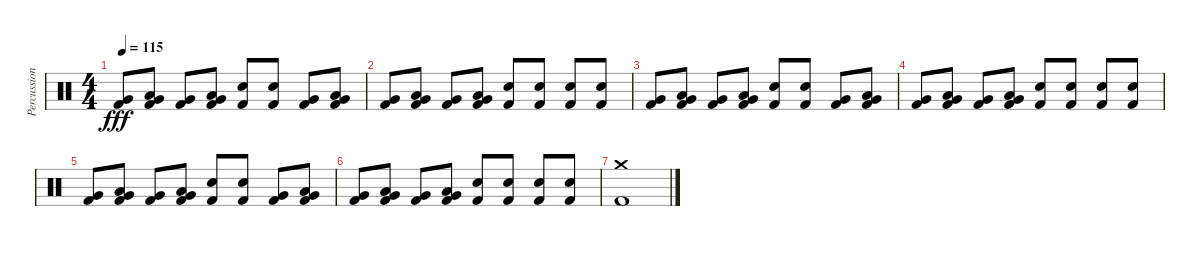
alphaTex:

\track ("Percussion" "Percussion") {instrument percussion}
\staff {score}
\articulation defaults
\ts (4 4)
\tempo 115
\clef neutral
\ks c
("Very Low Tom (hit)" "Kick (hit) 2").8{dy fff} ("Low Tom (hit)" "Very Low Tom (hit)" "Kick (hit) 2").8 ("Very Low Tom (hit)" "Kick (hit) 2").8 ("Low Tom (hit)" "Very Low Tom (hit)" "Kick (hit) 2").8 ("Snare (hit) 2" "Kick (hit) 2").8 ("Snare (hit) 2" "Kick (hit) 2").8 ("Very Low Tom (hit)" "Kick (hit) 2").8 ("Low Tom (hit)" "Very Low Tom (hit)" "Kick (hit) 2").8 |
("Very Low Tom (hit)" "Kick (hit) 2").8 ("Low Tom (hit)" "Very Low Tom (hit)" "Kick (hit) 2").8 ("Very Low Tom (hit)" "Kick (hit) 2").8 ("Low Tom (hit)" "Very Low Tom (hit)" "Kick (hit) 2").8 ("Snare (hit) 2" "Kick (hit) 2").8 ("Snare (hit) 2" "Kick (hit) 2").8 ("Snare (hit) 2" "Kick (hit) 2").8 ("Snare (hit) 2" "Kick (hit) 2").8 |
("Very Low Tom (hit)" "Kick (hit) 2").8 ("Low Tom (hit)" "Very Low Tom (hit)" "Kick (hit) 2").8 ("Very Low Tom (hit)" "Kick (hit) 2").8 ("Low Tom (hit)" "Very Low Tom (hit)" "Kick (hit) 2").8 ("Snare (hit) 2" "Kick (hit) 2").8 ("Snare (hit) 2" "Kick (hit) 2").8 ("Very Low Tom (hit)" "Kick (hit) 2").8 ("Low Tom (hit)" "Very Low Tom (hit)" "Kick (hit) 2").8 |
("Very Low Tom (hit)" "Kick (hit) 2").8 ("Low Tom (hit)" "Very Low Tom (hit)" "Kick (hit) 2").8 ("Very Low Tom (hit)" "Kick (hit) 2").8 ("Low Tom (hit)" "Very Low Tom (hit)" "Kick (hit) 2").8 ("Snare (hit) 2" "Kick (hit) 2").8 ("Snare (hit) 2" "Kick (hit) 2").8 ("Snare (hit) 2" "Kick (hit) 2").8 ("Snare (hit) 2" "Kick (hit) 2").8 |
("Very Low Tom (hit)" "Kick (hit) 2").8 ("Low Tom (hit)" "Very Low Tom (hit)" "Kick (hit) 2").8 ("Very Low Tom (hit)" "Kick (hit) 2").8 ("Low Tom (hit)" "Very Low Tom (hit)" "Kick (hit) 2").8 ("Snare (hit) 2" "Kick (hit) 2").8 ("Snare (hit) 2" "Kick (hit) 2").8 ("Very Low Tom (hit)" "Kick (hit) 2").8 ("Low Tom (hit)" "Very Low Tom (hit)" "Kick (hit) 2").8 |
("Very Low Tom (hit)" "Kick (hit) 2").8 ("Low Tom (hit)" "Very Low Tom (hit)" "Kick (hit) 2").8 ("Very Low Tom (hit)" "Kick (hit) 2").8 ("Low Tom (hit)" "Very Low Tom (hit)" "Kick (hit) 2").8 ("Snare (hit) 2" "Kick (hit) 2").8 ("Snare (hit) 2" "Kick (hit) 2").8 ("Snare (hit) 2" "Kick (hit) 2").8 ("Snare (hit) 2" "Kick (hit) 2").8 |
("Crash medium (hit)" "Kick (hit) 2").1
